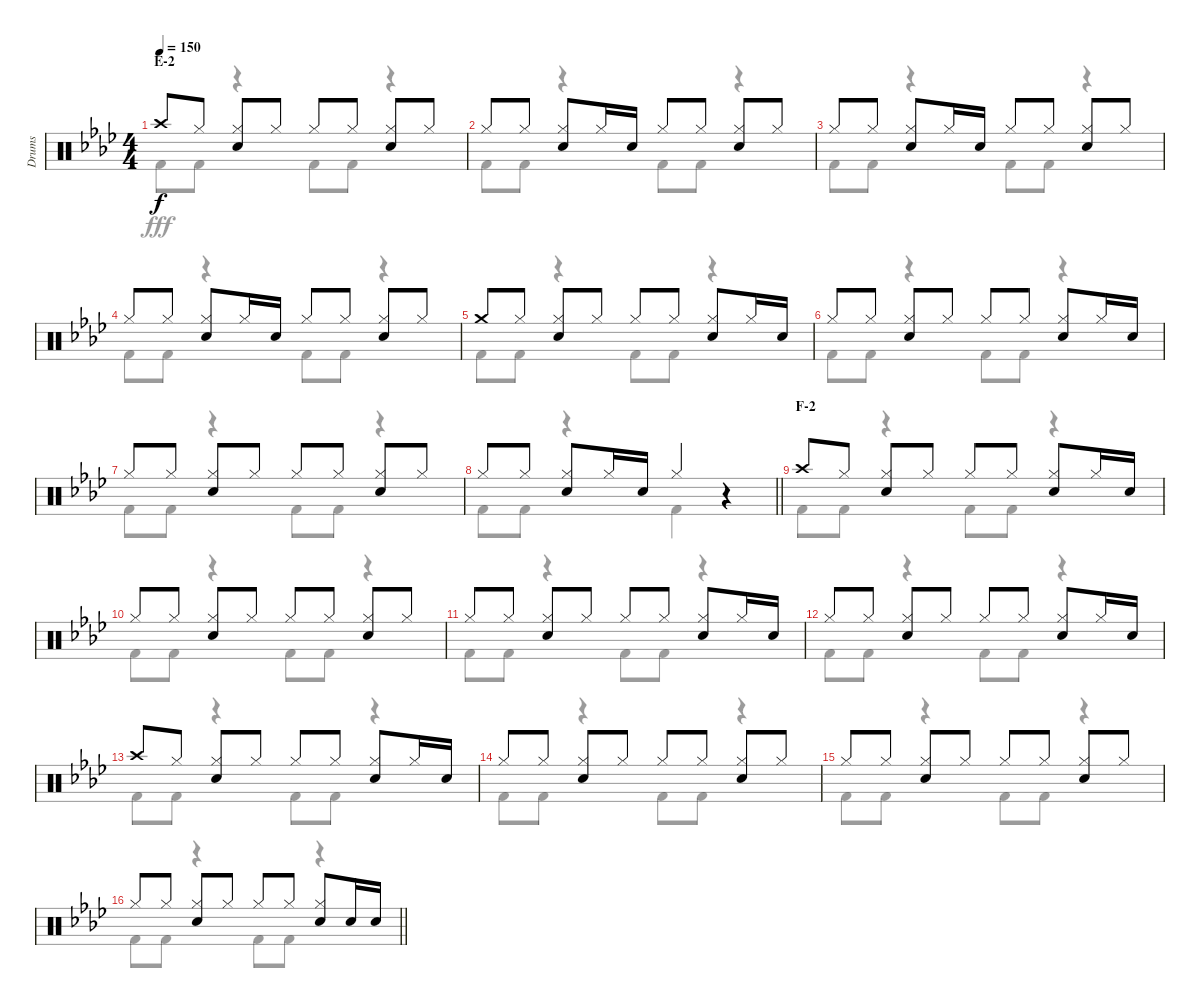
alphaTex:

\track ("Drums" "Drums") {instrument percussion}
\staff {score}
\articulation defaults
\voice
\ts (4 4)
\section ("" "E-2")
\tempo 150
\clef neutral
\ks ab "Crash high (hit)".8{dy f} "Hi-Hat (closed)".8
("Hi-Hat (closed)" "Snare (hit) 2").8 "Hi-Hat (closed)".8 "Hi-Hat (closed)".8 "Hi-Hat (closed)".8 ("Hi-Hat (closed)" "Snare (hit) 2").8 "Hi-Hat (closed)".8 |
"Hi-Hat (closed)".8 "Hi-Hat (closed)".8 ("Hi-Hat (closed)" "Snare (hit) 2").8 "Hi-Hat (closed)".16 "Snare (hit) 2".16 "Hi-Hat (closed)".8 "Hi-Hat (closed)".8 ("Hi-Hat (closed)" "Snare (hit) 2").8 "Hi-Hat (closed)".8 |
"Hi-Hat (closed)".8 "Hi-Hat (closed)".8 ("Hi-Hat (closed)" "Snare (hit) 2").8 "Hi-Hat (closed)".16 "Snare (hit) 2".16 "Hi-Hat (closed)".8 "Hi-Hat (closed)".8 ("Hi-Hat (closed)" "Snare (hit) 2").8 "Hi-Hat (closed)".8 |
"Hi-Hat (closed)".8 "Hi-Hat (closed)".8 ("Hi-Hat (closed)" "Snare (hit) 2").8 "Hi-Hat (closed)".16 "Snare (hit) 2".16 "Hi-Hat (closed)".8 "Hi-Hat (closed)".8 ("Hi-Hat (closed)" "Snare (hit) 2").8 "Hi-Hat (closed)".8 |
"Crash medium (hit)".8 "Hi-Hat (closed)".8 ("Hi-Hat (closed)" "Snare (hit) 2").8 "Hi-Hat (closed)".8 "Hi-Hat (closed)".8 "Hi-Hat (closed)".8 ("Hi-Hat (closed)" "Snare (hit) 2").8 "Hi-Hat (closed)".16 "Snare (hit) 2".16 |
"Hi-Hat (closed)".8 "Hi-Hat (closed)".8 ("Hi-Hat (closed)" "Snare (hit) 2").8 "Hi-Hat (closed)".8 "Hi-Hat (closed)".8 "Hi-Hat (closed)".8 ("Hi-Hat (closed)" "Snare (hit) 2").8 "Hi-Hat (closed)".16 "Snare (hit) 2".16 |
"Hi-Hat (closed)".8 "Hi-Hat (closed)".8 ("Hi-Hat (closed)" "Snare (hit) 2").8 "Hi-Hat (closed)".8 "Hi-Hat (closed)".8 "Hi-Hat (closed)".8 ("Hi-Hat (closed)" "Snare (hit) 2").8 "Hi-Hat (closed)".8 |
\barLineRight lightlight "Hi-Hat (closed)".8 "Hi-Hat (closed)".8
("Hi-Hat (closed)" "Snare (hit) 2").8 "Hi-Hat (closed)".16 "Snare (hit) 2".16 "Hi-Hat (closed)".4 r.4 |
\section ("" "F-2")
"Crash high (hit)".8 "Hi-Hat (closed)".8 ("Hi-Hat (closed)" "Snare (hit) 2").8 "Hi-Hat (closed)".8 "Hi-Hat (closed)".8 "Hi-Hat (closed)".8 ("Hi-Hat (closed)" "Snare (hit) 2").8 "Hi-Hat (closed)".16 "Snare (hit) 2".16 |
"Hi-Hat (closed)".8 "Hi-Hat (closed)".8 ("Hi-Hat (closed)" "Snare (hit) 2").8 "Hi-Hat (closed)".8 "Hi-Hat (closed)".8 "Hi-Hat (closed)".8 ("Hi-Hat (closed)" "Snare (hit) 2").8 "Hi-Hat (closed)".8 |
"Hi-Hat (closed)".8 "Hi-Hat (closed)".8 ("Hi-Hat (closed)" "Snare (hit) 2").8 "Hi-Hat (closed)".8 "Hi-Hat (closed)".8 "Hi-Hat (closed)".8 ("Hi-Hat (closed)" "Snare (hit) 2").8 "Hi-Hat (closed)".16 "Snare (hit) 2".16 |
"Hi-Hat (closed)".8 "Hi-Hat (closed)".8 ("Hi-Hat (closed)" "Snare (hit) 2").8 "Hi-Hat (closed)".8 "Hi-Hat (closed)".8 "Hi-Hat (closed)".8 ("Hi-Hat (closed)" "Snare (hit) 2").8 "Hi-Hat (closed)".16 "Snare (hit) 2".16 |
"Crash high (hit)".8 "Hi-Hat (closed)".8 ("Hi-Hat (closed)" "Snare (hit) 2").8 "Hi-Hat (closed)".8 "Hi-Hat (closed)".8 "Hi-Hat (closed)".8 ("Hi-Hat (closed)" "Snare (hit) 2").8 "Hi-Hat (closed)".16 "Snare (hit) 2".16 |
"Hi-Hat (closed)".8 "Hi-Hat (closed)".8 ("Hi-Hat (closed)" "Snare (hit) 2").8 "Hi-Hat (closed)".8 "Hi-Hat (closed)".8 "Hi-Hat (closed)".8 ("Hi-Hat (closed)" "Snare (hit) 2").8 "Hi-Hat (closed)".8 |
"Hi-Hat (closed)".8 "Hi-Hat (closed)".8 ("Hi-Hat (closed)" "Snare (hit) 2").8 "Hi-Hat (closed)".8 "Hi-Hat (closed)".8 "Hi-Hat (closed)".8 ("Hi-Hat (closed)" "Snare (hit) 2").8 "Hi-Hat (closed)".8 |
\barLineRight lightlight "Hi-Hat (closed)".8 "Hi-Hat (closed)".8
("Hi-Hat (closed)" "Snare (hit) 2").8 "Hi-Hat (closed)".8 "Hi-Hat (closed)".8 "Hi-Hat (closed)".8 ("Hi-Hat (closed)" "Snare (hit) 2").8 "Snare (hit) 2".16 "Snare (hit) 2".16
\voice
\clef neutral
\ottava regular
\simile none
\ks ab "Kick (hit) 2".8{dy fff} "Kick (hit) 2".8
r.4 "Kick (hit) 2".8 "Kick (hit) 2".8 r.4 |
"Kick (hit) 2".8 "Kick (hit) 2".8 r.4 "Kick (hit) 2".8 "Kick (hit) 2".8 r.4 |
"Kick (hit) 2".8 "Kick (hit) 2".8 r.4 "Kick (hit) 2".8 "Kick (hit) 2".8 r.4 |
"Kick (hit) 2".8 "Kick (hit) 2".8 r.4 "Kick (hit) 2".8 "Kick (hit) 2".8 r.4 |
"Kick (hit) 2".8 "Kick (hit) 2".8 r.4 "Kick (hit) 2".8 "Kick (hit) 2".8 r.4 |
"Kick (hit) 2".8 "Kick (hit) 2".8 r.4 "Kick (hit) 2".8 "Kick (hit) 2".8 r.4 |
"Kick (hit) 2".8 "Kick (hit) 2".8 r.4 "Kick (hit) 2".8 "Kick (hit) 2".8 r.4 |
\barLineRight lightlight "Kick (hit) 2".8 "Kick (hit) 2".8
r.4 "Kick (hit) 2".4 r.4 |
"Kick (hit) 2".8 "Kick (hit) 2".8 r.4 "Kick (hit) 2".8 "Kick (hit) 2".8 r.4 |
"Kick (hit) 2".8 "Kick (hit) 2".8 r.4 "Kick (hit) 2".8 "Kick (hit) 2".8 r.4 |
"Kick (hit) 2".8 "Kick (hit) 2".8 r.4 "Kick (hit) 2".8 "Kick (hit) 2".8 r.4 |
"Kick (hit) 2".8 "Kick (hit) 2".8 r.4 "Kick (hit) 2".8 "Kick (hit) 2".8 r.4 |
"Kick (hit) 2".8 "Kick (hit) 2".8 r.4 "Kick (hit) 2".8 "Kick (hit) 2".8 r.4 |
"Kick (hit) 2".8 "Kick (hit) 2".8 r.4 "Kick (hit) 2".8 "Kick (hit) 2".8 r.4 |
"Kick (hit) 2".8 "Kick (hit) 2".8 r.4 "Kick (hit) 2".8 "Kick (hit) 2".8 r.4 |
\barLineRight lightlight "Kick (hit) 2".8 "Kick (hit) 2".8
r.4 "Kick (hit) 2".8 "Kick (hit) 2".8 r.4
